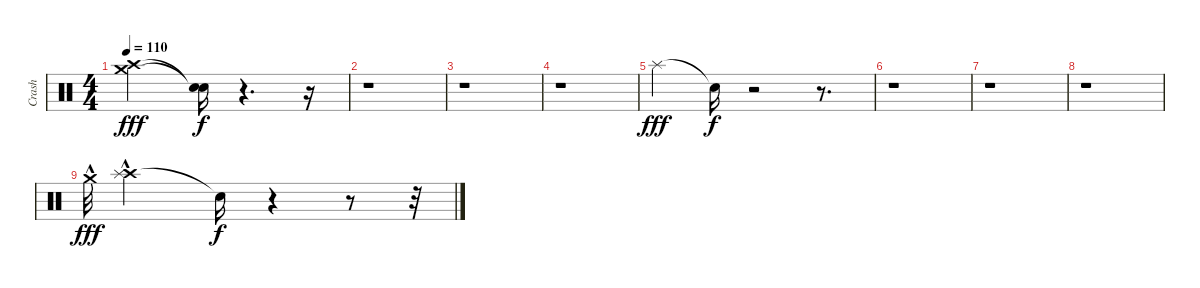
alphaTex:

\track ("Crash" "Crash") {instrument percussion}
\staff {score}
\articulation defaults
\ts (4 4)
\tempo 110
\clef neutral
\ks c
("Crash medium (hit)" "Crash high (hit)").2{dy fff} ("Snare (hit)"{t} "Snare (hit)"{t}).16{dy f} r.4{d} r.16 |
r.1 |
r.1 |
r.1 |
"Splash (hit)".4{dy fff} "Snare (hit)"{t}.16{dy f} r.2 r.8{d} |
r.1 |
r.1 |
r.1 |
"Crash medium (hit)"{hac}.32{dy fff} ("Crash high (hit)"{hac} "Splash (hit)").2 "Snare (hit)"{t}.16{dy f} r.4 r.8 r.32
